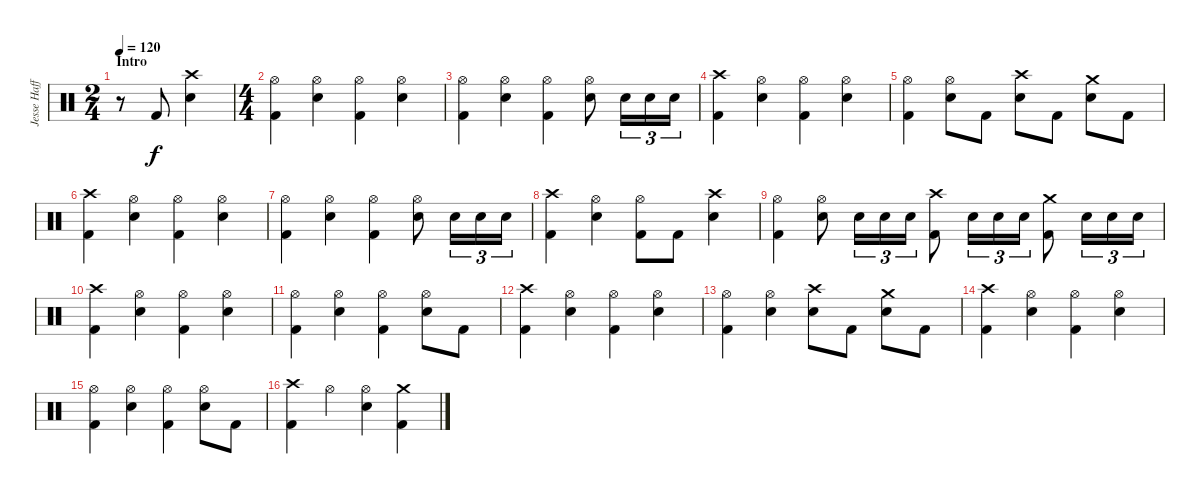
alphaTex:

\track ("Jesse Haff" "Jesse Haff") {instrument percussion}
\staff {score}
\articulation defaults
\ts (2 4)
\section ("" "Intro")
\tempo 120
\tempo 142
\tempo 120
\clef neutral
\ks c
r.8{dy f} "Kick (hit) 2".8 ("Crash high (hit)" "Electric Snare (hit)").4 |
\ts (4 4)
("Hi-Hat (open)" "Kick (hit) 2").4 ("Hi-Hat (open)" "Electric Snare (hit)").4 ("Hi-Hat (open)" "Kick (hit) 2").4 ("Hi-Hat (open)" "Electric Snare (hit)").4 |
("Hi-Hat (open)" "Kick (hit) 2").4 ("Hi-Hat (open)" "Electric Snare (hit)").4 ("Hi-Hat (open)" "Kick (hit) 2").4 ("Hi-Hat (open)" "Electric Snare (hit)").8 "Electric Snare (hit)".16{tu (3 2)} "Electric Snare (hit)".16{tu (3 2)} "Electric Snare (hit)".16{tu (3 2)} |
("Crash high (hit)" "Kick (hit) 2").4 ("Hi-Hat (open)" "Electric Snare (hit)").4 ("Hi-Hat (open)" "Kick (hit) 2").4 ("Hi-Hat (open)" "Electric Snare (hit)").4 |
("Hi-Hat (open)" "Kick (hit) 2").4 ("Hi-Hat (open)" "Electric Snare (hit)").8 "Kick (hit) 2".8 ("Crash high (hit)" "Electric Snare (hit)").8 "Kick (hit) 2".8 ("Crash medium (hit)" "Electric Snare (hit)").8 "Kick (hit) 2".8 |
("Crash high (hit)" "Kick (hit) 2").4 ("Hi-Hat (open)" "Electric Snare (hit)").4 ("Hi-Hat (open)" "Kick (hit) 2").4 ("Hi-Hat (open)" "Electric Snare (hit)").4 |
("Hi-Hat (open)" "Kick (hit) 2").4 ("Hi-Hat (open)" "Electric Snare (hit)").4 ("Hi-Hat (open)" "Kick (hit) 2").4 ("Hi-Hat (open)" "Electric Snare (hit)").8 "Electric Snare (hit)".16{tu (3 2)} "Electric Snare (hit)".16{tu (3 2)} "Electric Snare (hit)".16{tu (3 2)} |
("Crash high (hit)" "Kick (hit) 2").4 ("Hi-Hat (open)" "Electric Snare (hit)").4 ("Hi-Hat (open)" "Kick (hit) 2").8 "Kick (hit) 2".8 ("Crash high (hit)" "Electric Snare (hit)").4 |
("Hi-Hat (open)" "Kick (hit) 2").4 ("Hi-Hat (open)" "Electric Snare (hit)").8 "Electric Snare (hit)".16{tu (3 2)} "Electric Snare (hit)".16{tu (3 2)} "Electric Snare (hit)".16{tu (3 2)} ("Crash high (hit)" "Kick (hit) 2").8 "Electric Snare (hit)".16{tu (3 2)} "Electric Snare (hit)".16{tu (3 2)} "Electric Snare (hit)".16{tu (3 2)} ("Crash medium (hit)" "Kick (hit) 2").8 "Electric Snare (hit)".16{tu (3 2)} "Electric Snare (hit)".16{tu (3 2)} "Electric Snare (hit)".16{tu (3 2)} |
("Crash high (hit)" "Kick (hit) 2").4 ("Hi-Hat (open)" "Electric Snare (hit)").4 ("Hi-Hat (open)" "Kick (hit) 2").4 ("Hi-Hat (open)" "Electric Snare (hit)").4 |
("Hi-Hat (open)" "Kick (hit) 2").4 ("Hi-Hat (open)" "Electric Snare (hit)").4 ("Hi-Hat (open)" "Kick (hit) 2").4 ("Hi-Hat (open)" "Electric Snare (hit)").8 "Kick (hit) 2".8 |
("Crash high (hit)" "Kick (hit) 2").4 ("Hi-Hat (open)" "Electric Snare (hit)").4 ("Hi-Hat (open)" "Kick (hit) 2").4 ("Hi-Hat (open)" "Electric Snare (hit)").4 |
("Hi-Hat (open)" "Kick (hit) 2").4 ("Hi-Hat (open)" "Electric Snare (hit)").4 ("Crash high (hit)" "Electric Snare (hit)").8 "Kick (hit) 2".8 ("Crash medium (hit)" "Electric Snare (hit)").8 "Kick (hit) 2".8 |
("Crash high (hit)" "Kick (hit) 2").4 ("Hi-Hat (open)" "Electric Snare (hit)").4 ("Hi-Hat (open)" "Kick (hit) 2").4 ("Hi-Hat (open)" "Electric Snare (hit)").4 |
("Hi-Hat (open)" "Kick (hit) 2").4 ("Hi-Hat (open)" "Electric Snare (hit)").4 ("Hi-Hat (open)" "Kick (hit) 2").4 ("Hi-Hat (open)" "Electric Snare (hit)").8 "Kick (hit) 2".8 |
("Crash high (hit)" "Kick (hit) 2").4 "Hi-Hat (open)".4 ("Hi-Hat (open)" "Electric Snare (hit)").4 ("Crash medium (hit)" "Kick (hit) 2").4
